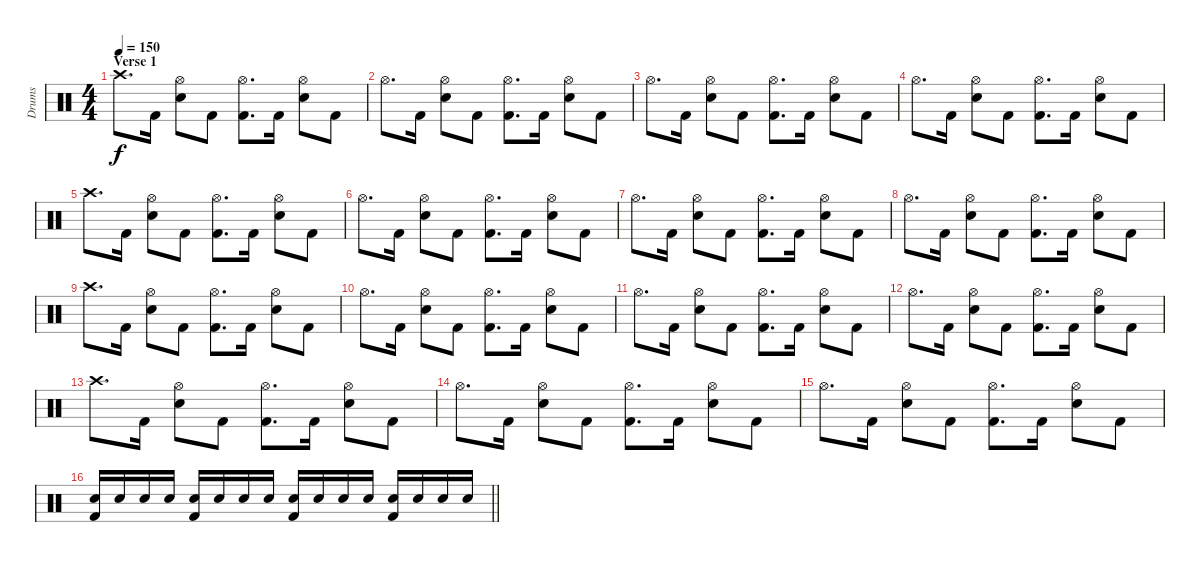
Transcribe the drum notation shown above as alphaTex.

\track ("Drums" "Drums") {instrument percussion}
\staff {score}
\articulation defaults
\ts (4 4)
\section ("" "Verse 1")
\tempo 150
\clef neutral
\ks c "Crash high (hit)".8{d dy f} "Kick (hit) 2".16
("Snare (hit) 2" "Hi-Hat (open)").8 "Kick (hit) 2".8 ("Kick (hit) 2" "Hi-Hat (open)").8{d} "Kick (hit) 2".16 ("Snare (hit) 2" "Hi-Hat (open)").8 "Kick (hit) 2".8 |
"Hi-Hat (open)".8{d} "Kick (hit) 2".16 ("Snare (hit) 2" "Hi-Hat (open)").8 "Kick (hit) 2".8 ("Kick (hit) 2" "Hi-Hat (open)").8{d} "Kick (hit) 2".16 ("Snare (hit) 2" "Hi-Hat (open)").8 "Kick (hit) 2".8 |
"Hi-Hat (open)".8{d} "Kick (hit) 2".16 ("Snare (hit) 2" "Hi-Hat (open)").8 "Kick (hit) 2".8 ("Kick (hit) 2" "Hi-Hat (open)").8{d} "Kick (hit) 2".16 ("Snare (hit) 2" "Hi-Hat (open)").8 "Kick (hit) 2".8 |
"Hi-Hat (open)".8{d} "Kick (hit) 2".16 ("Snare (hit) 2" "Hi-Hat (open)").8 "Kick (hit) 2".8 ("Kick (hit) 2" "Hi-Hat (open)").8{d} "Kick (hit) 2".16 ("Snare (hit) 2" "Hi-Hat (open)").8 "Kick (hit) 2".8 |
"Crash high (hit)".8{d} "Kick (hit) 2".16 ("Snare (hit) 2" "Hi-Hat (open)").8 "Kick (hit) 2".8 ("Kick (hit) 2" "Hi-Hat (open)").8{d} "Kick (hit) 2".16 ("Snare (hit) 2" "Hi-Hat (open)").8 "Kick (hit) 2".8 |
"Hi-Hat (open)".8{d} "Kick (hit) 2".16 ("Snare (hit) 2" "Hi-Hat (open)").8 "Kick (hit) 2".8 ("Kick (hit) 2" "Hi-Hat (open)").8{d} "Kick (hit) 2".16 ("Snare (hit) 2" "Hi-Hat (open)").8 "Kick (hit) 2".8 |
"Hi-Hat (open)".8{d} "Kick (hit) 2".16 ("Snare (hit) 2" "Hi-Hat (open)").8 "Kick (hit) 2".8 ("Kick (hit) 2" "Hi-Hat (open)").8{d} "Kick (hit) 2".16 ("Snare (hit) 2" "Hi-Hat (open)").8 "Kick (hit) 2".8 |
"Hi-Hat (open)".8{d} "Kick (hit) 2".16 ("Snare (hit) 2" "Hi-Hat (open)").8 "Kick (hit) 2".8 ("Kick (hit) 2" "Hi-Hat (open)").8{d} "Kick (hit) 2".16 ("Snare (hit) 2" "Hi-Hat (open)").8 "Kick (hit) 2".8 |
"Crash high (hit)".8{d} "Kick (hit) 2".16 ("Snare (hit) 2" "Hi-Hat (open)").8 "Kick (hit) 2".8 ("Kick (hit) 2" "Hi-Hat (open)").8{d} "Kick (hit) 2".16 ("Snare (hit) 2" "Hi-Hat (open)").8 "Kick (hit) 2".8 |
"Hi-Hat (open)".8{d} "Kick (hit) 2".16 ("Snare (hit) 2" "Hi-Hat (open)").8 "Kick (hit) 2".8 ("Kick (hit) 2" "Hi-Hat (open)").8{d} "Kick (hit) 2".16 ("Snare (hit) 2" "Hi-Hat (open)").8 "Kick (hit) 2".8 |
"Hi-Hat (open)".8{d} "Kick (hit) 2".16 ("Snare (hit) 2" "Hi-Hat (open)").8 "Kick (hit) 2".8 ("Kick (hit) 2" "Hi-Hat (open)").8{d} "Kick (hit) 2".16 ("Snare (hit) 2" "Hi-Hat (open)").8 "Kick (hit) 2".8 |
"Hi-Hat (open)".8{d} "Kick (hit) 2".16 ("Snare (hit) 2" "Hi-Hat (open)").8 "Kick (hit) 2".8 ("Kick (hit) 2" "Hi-Hat (open)").8{d} "Kick (hit) 2".16 ("Snare (hit) 2" "Hi-Hat (open)").8 "Kick (hit) 2".8 |
"Crash high (hit)".8{d} "Kick (hit) 2".16 ("Snare (hit) 2" "Hi-Hat (open)").8 "Kick (hit) 2".8 ("Kick (hit) 2" "Hi-Hat (open)").8{d} "Kick (hit) 2".16 ("Snare (hit) 2" "Hi-Hat (open)").8 "Kick (hit) 2".8 |
"Hi-Hat (open)".8{d} "Kick (hit) 2".16 ("Snare (hit) 2" "Hi-Hat (open)").8 "Kick (hit) 2".8 ("Kick (hit) 2" "Hi-Hat (open)").8{d} "Kick (hit) 2".16 ("Snare (hit) 2" "Hi-Hat (open)").8 "Kick (hit) 2".8 |
"Hi-Hat (open)".8{d} "Kick (hit) 2".16 ("Snare (hit) 2" "Hi-Hat (open)").8 "Kick (hit) 2".8 ("Kick (hit) 2" "Hi-Hat (open)").8{d} "Kick (hit) 2".16 ("Snare (hit) 2" "Hi-Hat (open)").8 "Kick (hit) 2".8 |
\barLineRight lightlight
("Kick (hit) 2" "Snare (hit) 2").16 "Snare (hit) 2".16 "Snare (hit) 2".16 "Snare (hit) 2".16 ("Kick (hit) 2" "Snare (hit) 2").16 "Snare (hit) 2".16 "Snare (hit) 2".16 "Snare (hit) 2".16 ("Kick (hit) 2" "Snare (hit) 2").16 "Snare (hit) 2".16 "Snare (hit) 2".16 "Snare (hit) 2".16 ("Kick (hit) 2" "Snare (hit) 2").16 "Snare (hit) 2".16 "Snare (hit) 2".16 "Snare (hit) 2".16
